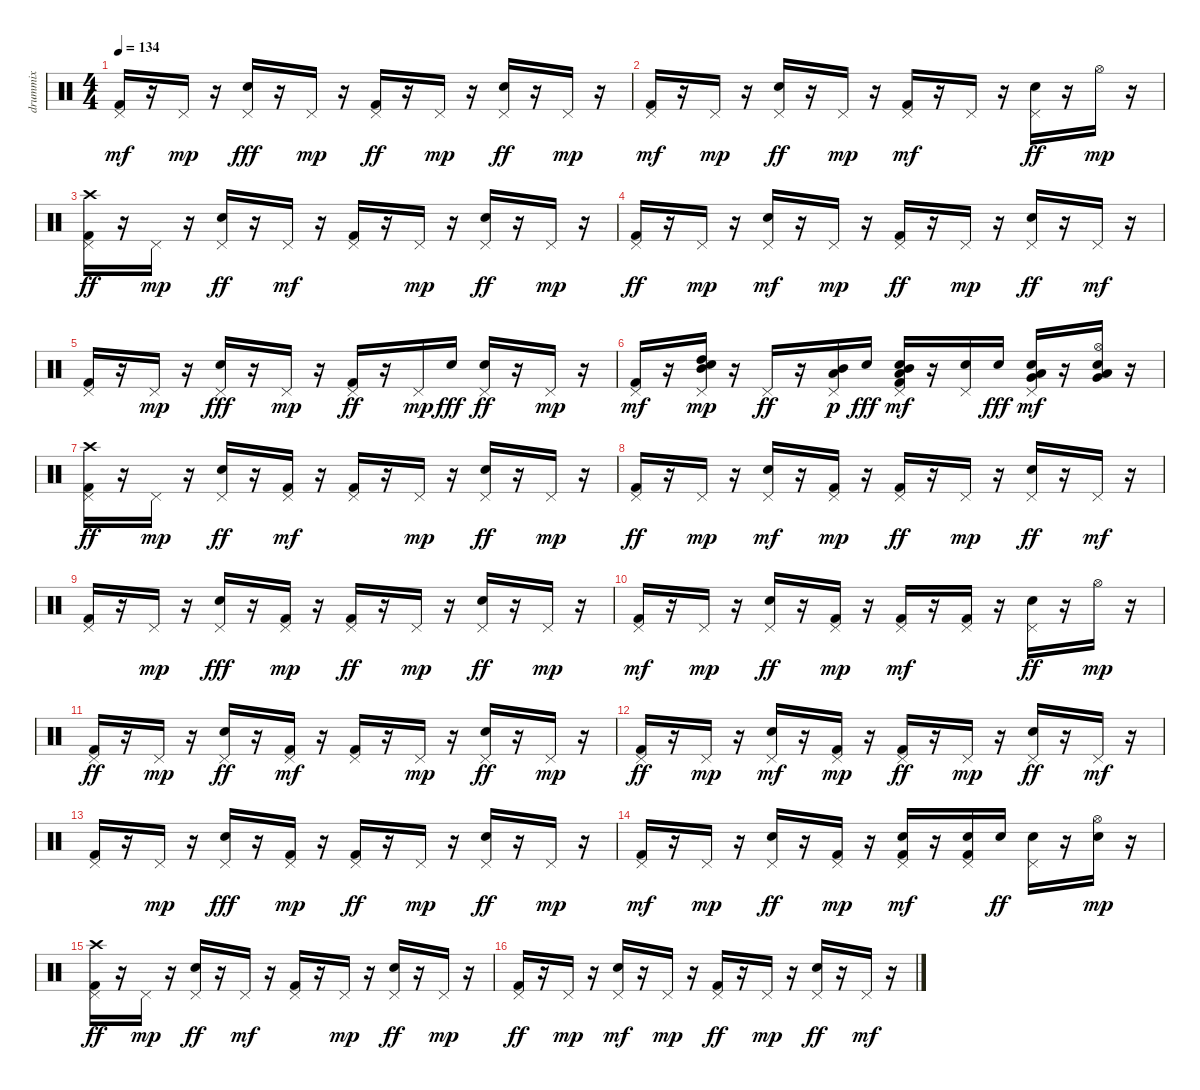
\track ("drummix" "drummix") {instrument percussion}
\staff {score}
\articulation defaults
\ts (4 4)
\tempo 134
\clef neutral
\ks c
("Kick (hit) 2" "Pedal Hi-Hat (hit)").16{dy mf} r.16 "Pedal Hi-Hat (hit)".16{dy mp} r.16 ("Snare (hit) 2" "Pedal Hi-Hat (hit)").16{dy fff} r.16 "Pedal Hi-Hat (hit)".16{dy mp} r.16 ("Kick (hit) 2" "Pedal Hi-Hat (hit)").16{dy ff} r.16 "Pedal Hi-Hat (hit)".16{dy mp} r.16 ("Snare (hit) 2" "Pedal Hi-Hat (hit)").16{dy ff} r.16 "Pedal Hi-Hat (hit)".16{dy mp} r.16 |
("Kick (hit) 2" "Pedal Hi-Hat (hit)").16{dy mf} r.16 "Pedal Hi-Hat (hit)".16{dy mp} r.16 ("Snare (hit) 2" "Pedal Hi-Hat (hit)").16{dy ff} r.16 "Pedal Hi-Hat (hit)".16{dy mp} r.16 ("Kick (hit) 2" "Pedal Hi-Hat (hit)").16{dy mf} r.16 "Pedal Hi-Hat (hit)".16 r.16 ("Snare (hit) 2" "Pedal Hi-Hat (hit)").16{dy ff} r.16 "Hi-Hat (open)".16{dy mp} r.16 |
("Kick (hit) 2" "Pedal Hi-Hat (hit)" "Crash high (hit)").16{dy ff} r.16 "Pedal Hi-Hat (hit)".16{dy mp} r.16 ("Snare (hit) 2" "Pedal Hi-Hat (hit)").16{dy ff} r.16 "Pedal Hi-Hat (hit)".16{dy mf} r.16 ("Kick (hit) 2" "Pedal Hi-Hat (hit)").16 r.16 "Pedal Hi-Hat (hit)".16{dy mp} r.16 ("Snare (hit) 2" "Pedal Hi-Hat (hit)").16{dy ff} r.16 "Pedal Hi-Hat (hit)".16{dy mp} r.16 |
("Kick (hit) 2" "Pedal Hi-Hat (hit)").16{dy ff} r.16 "Pedal Hi-Hat (hit)".16{dy mp} r.16 ("Snare (hit) 2" "Pedal Hi-Hat (hit)").16{dy mf} r.16 "Pedal Hi-Hat (hit)".16{dy mp} r.16 ("Kick (hit) 2" "Pedal Hi-Hat (hit)").16{dy ff} r.16 "Pedal Hi-Hat (hit)".16{dy mp} r.16 ("Snare (hit) 2" "Pedal Hi-Hat (hit)").16{dy ff} r.16 "Pedal Hi-Hat (hit)".16{dy mf} r.16 |
("Kick (hit) 2" "Pedal Hi-Hat (hit)").16 r.16 "Pedal Hi-Hat (hit)".16{dy mp} r.16 ("Snare (hit) 2" "Pedal Hi-Hat (hit)").16{dy fff} r.16 "Pedal Hi-Hat (hit)".16{dy mp} r.16 ("Kick (hit) 2" "Pedal Hi-Hat (hit)").16{dy ff} r.16 "Pedal Hi-Hat (hit)".16{dy mp} "Snare (hit) 2".16{dy fff} ("Snare (hit) 2" "Pedal Hi-Hat (hit)").16{dy ff} r.16 "Pedal Hi-Hat (hit)".16{dy mp} r.16 |
("Kick (hit) 2" "Pedal Hi-Hat (hit)").16{dy mf} r.16 ("Snare (hit) 2" "Pedal Hi-Hat (hit)" "Mid Tom (hit)" "High Tom (hit)").16{dy mp} r.16 "Pedal Hi-Hat (hit)".16{dy ff} r.16 ("Pedal Hi-Hat (hit)" "Mid Tom (hit)" "Low Tom (hit)").16{dy p} "Snare (hit) 2".16{dy fff} ("Kick (hit) 2" "Snare (hit) 2" "Pedal Hi-Hat (hit)" "Low Tom (hit)" "Mid Tom (hit)").16{dy mf} r.16 ("Snare (hit) 2" "Pedal Hi-Hat (hit)").16 "Snare (hit) 2".16{dy fff} ("Snare (hit) 2" "Pedal Hi-Hat (hit)" "Very Low Tom (hit)" "Low Tom (hit)").16{dy mf} r.16 ("Snare (hit) 2" "Hi-Hat (open)" "Low Floor Tom (hit)" "Very Low Tom (hit)").16 r.16 |
("Kick (hit) 2" "Pedal Hi-Hat (hit)" "Crash high (hit)").16{dy ff} r.16 "Pedal Hi-Hat (hit)".16{dy mp} r.16 ("Snare (hit) 2" "Pedal Hi-Hat (hit)").16{dy ff} r.16 ("Kick (hit) 2" "Pedal Hi-Hat (hit)").16{dy mf} r.16 ("Kick (hit) 2" "Pedal Hi-Hat (hit)").16 r.16 "Pedal Hi-Hat (hit)".16{dy mp} r.16 ("Snare (hit) 2" "Pedal Hi-Hat (hit)").16{dy ff} r.16 "Pedal Hi-Hat (hit)".16{dy mp} r.16 |
("Kick (hit) 2" "Pedal Hi-Hat (hit)").16{dy ff} r.16 "Pedal Hi-Hat (hit)".16{dy mp} r.16 ("Snare (hit) 2" "Pedal Hi-Hat (hit)").16{dy mf} r.16 ("Kick (hit) 2" "Pedal Hi-Hat (hit)").16{dy mp} r.16 ("Kick (hit) 2" "Pedal Hi-Hat (hit)").16{dy ff} r.16 "Pedal Hi-Hat (hit)".16{dy mp} r.16 ("Snare (hit) 2" "Pedal Hi-Hat (hit)").16{dy ff} r.16 "Pedal Hi-Hat (hit)".16{dy mf} r.16 |
("Kick (hit) 2" "Pedal Hi-Hat (hit)").16 r.16 "Pedal Hi-Hat (hit)".16{dy mp} r.16 ("Snare (hit) 2" "Pedal Hi-Hat (hit)").16{dy fff} r.16 ("Kick (hit) 2" "Pedal Hi-Hat (hit)").16{dy mp} r.16 ("Kick (hit) 2" "Pedal Hi-Hat (hit)").16{dy ff} r.16 "Pedal Hi-Hat (hit)".16{dy mp} r.16 ("Snare (hit) 2" "Pedal Hi-Hat (hit)").16{dy ff} r.16 "Pedal Hi-Hat (hit)".16{dy mp} r.16 |
("Kick (hit) 2" "Pedal Hi-Hat (hit)").16{dy mf} r.16 "Pedal Hi-Hat (hit)".16{dy mp} r.16 ("Snare (hit) 2" "Pedal Hi-Hat (hit)").16{dy ff} r.16 ("Kick (hit) 2" "Pedal Hi-Hat (hit)").16{dy mp} r.16 ("Kick (hit) 2" "Pedal Hi-Hat (hit)").16{dy mf} r.16 ("Kick (hit) 2" "Pedal Hi-Hat (hit)").16 r.16 ("Snare (hit) 2" "Pedal Hi-Hat (hit)").16{dy ff} r.16 "Hi-Hat (open)".16{dy mp} r.16 |
("Kick (hit) 2" "Pedal Hi-Hat (hit)").16{dy ff} r.16 "Pedal Hi-Hat (hit)".16{dy mp} r.16 ("Snare (hit) 2" "Pedal Hi-Hat (hit)").16{dy ff} r.16 ("Kick (hit) 2" "Pedal Hi-Hat (hit)").16{dy mf} r.16 ("Kick (hit) 2" "Pedal Hi-Hat (hit)").16 r.16 "Pedal Hi-Hat (hit)".16{dy mp} r.16 ("Snare (hit) 2" "Pedal Hi-Hat (hit)").16{dy ff} r.16 "Pedal Hi-Hat (hit)".16{dy mp} r.16 |
("Kick (hit) 2" "Pedal Hi-Hat (hit)").16{dy ff} r.16 "Pedal Hi-Hat (hit)".16{dy mp} r.16 ("Snare (hit) 2" "Pedal Hi-Hat (hit)").16{dy mf} r.16 ("Kick (hit) 2" "Pedal Hi-Hat (hit)").16{dy mp} r.16 ("Kick (hit) 2" "Pedal Hi-Hat (hit)").16{dy ff} r.16 "Pedal Hi-Hat (hit)".16{dy mp} r.16 ("Snare (hit) 2" "Pedal Hi-Hat (hit)").16{dy ff} r.16 "Pedal Hi-Hat (hit)".16{dy mf} r.16 |
("Kick (hit) 2" "Pedal Hi-Hat (hit)").16 r.16 "Pedal Hi-Hat (hit)".16{dy mp} r.16 ("Snare (hit) 2" "Pedal Hi-Hat (hit)").16{dy fff} r.16 ("Kick (hit) 2" "Pedal Hi-Hat (hit)").16{dy mp} r.16 ("Kick (hit) 2" "Pedal Hi-Hat (hit)").16{dy ff} r.16 "Pedal Hi-Hat (hit)".16{dy mp} r.16 ("Snare (hit) 2" "Pedal Hi-Hat (hit)").16{dy ff} r.16 "Pedal Hi-Hat (hit)".16{dy mp} r.16 |
("Kick (hit) 2" "Pedal Hi-Hat (hit)").16{dy mf} r.16 "Pedal Hi-Hat (hit)".16{dy mp} r.16 ("Snare (hit) 2" "Pedal Hi-Hat (hit)").16{dy ff} r.16 ("Kick (hit) 2" "Pedal Hi-Hat (hit)").16{dy mp} r.16 ("Kick (hit) 2" "Snare (hit) 2" "Pedal Hi-Hat (hit)").16{dy mf} r.16 ("Kick (hit) 2" "Snare (hit) 2" "Pedal Hi-Hat (hit)").16 "Snare (hit) 2".16{dy ff} ("Snare (hit) 2" "Pedal Hi-Hat (hit)").16 r.16 ("Snare (hit) 2" "Hi-Hat (open)").16{dy mp} r.16 |
("Kick (hit) 2" "Pedal Hi-Hat (hit)" "Crash high (hit)").16{dy ff} r.16 "Pedal Hi-Hat (hit)".16{dy mp} r.16 ("Snare (hit) 2" "Pedal Hi-Hat (hit)").16{dy ff} r.16 "Pedal Hi-Hat (hit)".16{dy mf} r.16 ("Kick (hit) 2" "Pedal Hi-Hat (hit)").16 r.16 "Pedal Hi-Hat (hit)".16{dy mp} r.16 ("Snare (hit) 2" "Pedal Hi-Hat (hit)").16{dy ff} r.16 "Pedal Hi-Hat (hit)".16{dy mp} r.16 |
("Kick (hit) 2" "Pedal Hi-Hat (hit)").16{dy ff} r.16 "Pedal Hi-Hat (hit)".16{dy mp} r.16 ("Snare (hit) 2" "Pedal Hi-Hat (hit)").16{dy mf} r.16 "Pedal Hi-Hat (hit)".16{dy mp} r.16 ("Kick (hit) 2" "Pedal Hi-Hat (hit)").16{dy ff} r.16 "Pedal Hi-Hat (hit)".16{dy mp} r.16 ("Snare (hit) 2" "Pedal Hi-Hat (hit)").16{dy ff} r.16 "Pedal Hi-Hat (hit)".16{dy mf} r.16
